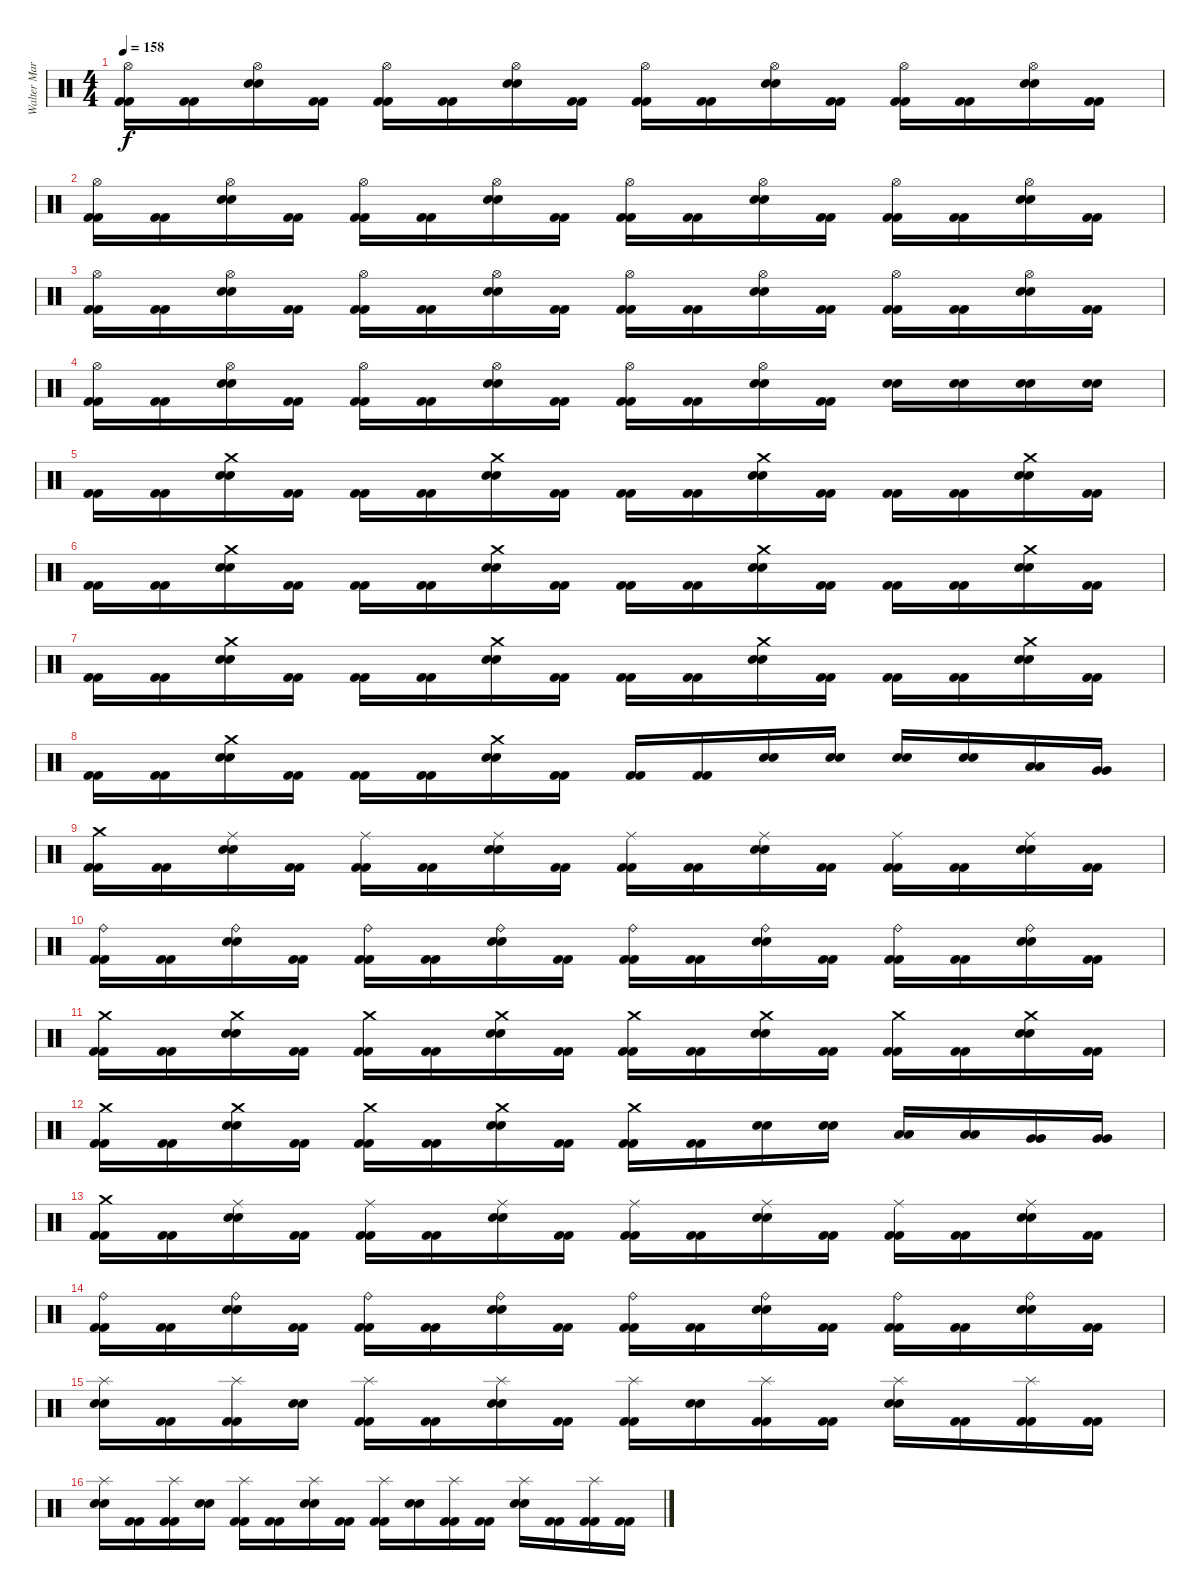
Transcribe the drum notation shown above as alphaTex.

\track ("Walter Martinez (Bateria)" "Walter Mar") {instrument percussion}
\staff {score}
\articulation defaults
\ts (4 4)
\tempo 158
\clef neutral
\ks c
("Hi-Hat (open)" "Kick (hit) 2" "Kick (hit) 2").16{dy f} ("Kick (hit) 2" "Kick (hit) 2").16 ("Hi-Hat (open)" "Snare (hit) 2" "Snare (hit) 2").16 ("Kick (hit) 2" "Kick (hit) 2").16 ("Hi-Hat (open)" "Kick (hit) 2" "Kick (hit) 2").16 ("Kick (hit) 2" "Kick (hit) 2").16 ("Hi-Hat (open)" "Snare (hit) 2" "Snare (hit) 2").16 ("Kick (hit) 2" "Kick (hit) 2").16 ("Hi-Hat (open)" "Kick (hit) 2" "Kick (hit) 2").16 ("Kick (hit) 2" "Kick (hit) 2").16 ("Hi-Hat (open)" "Snare (hit) 2" "Snare (hit) 2").16 ("Kick (hit) 2" "Kick (hit) 2").16 ("Hi-Hat (open)" "Kick (hit) 2" "Kick (hit) 2").16 ("Kick (hit) 2" "Kick (hit) 2").16 ("Hi-Hat (open)" "Snare (hit) 2" "Snare (hit) 2").16 ("Kick (hit) 2" "Kick (hit) 2").16 |
("Hi-Hat (open)" "Kick (hit) 2" "Kick (hit) 2").16 ("Kick (hit) 2" "Kick (hit) 2").16 ("Hi-Hat (open)" "Snare (hit) 2" "Snare (hit) 2").16 ("Kick (hit) 2" "Kick (hit) 2").16 ("Hi-Hat (open)" "Kick (hit) 2" "Kick (hit) 2").16 ("Kick (hit) 2" "Kick (hit) 2").16 ("Hi-Hat (open)" "Snare (hit) 2" "Snare (hit) 2").16 ("Kick (hit) 2" "Kick (hit) 2").16 ("Hi-Hat (open)" "Kick (hit) 2" "Kick (hit) 2").16 ("Kick (hit) 2" "Kick (hit) 2").16 ("Hi-Hat (open)" "Snare (hit) 2" "Snare (hit) 2").16 ("Kick (hit) 2" "Kick (hit) 2").16 ("Hi-Hat (open)" "Kick (hit) 2" "Kick (hit) 2").16 ("Kick (hit) 2" "Kick (hit) 2").16 ("Hi-Hat (open)" "Snare (hit) 2" "Snare (hit) 2").16 ("Kick (hit) 2" "Kick (hit) 2").16 |
("Hi-Hat (open)" "Kick (hit) 2" "Kick (hit) 2").16 ("Kick (hit) 2" "Kick (hit) 2").16 ("Hi-Hat (open)" "Snare (hit) 2" "Snare (hit) 2").16 ("Kick (hit) 2" "Kick (hit) 2").16 ("Hi-Hat (open)" "Kick (hit) 2" "Kick (hit) 2").16 ("Kick (hit) 2" "Kick (hit) 2").16 ("Hi-Hat (open)" "Snare (hit) 2" "Snare (hit) 2").16 ("Kick (hit) 2" "Kick (hit) 2").16 ("Hi-Hat (open)" "Kick (hit) 2" "Kick (hit) 2").16 ("Kick (hit) 2" "Kick (hit) 2").16 ("Hi-Hat (open)" "Snare (hit) 2" "Snare (hit) 2").16 ("Kick (hit) 2" "Kick (hit) 2").16 ("Hi-Hat (open)" "Kick (hit) 2" "Kick (hit) 2").16 ("Kick (hit) 2" "Kick (hit) 2").16 ("Hi-Hat (open)" "Snare (hit) 2" "Snare (hit) 2").16 ("Kick (hit) 2" "Kick (hit) 2").16 |
("Hi-Hat (open)" "Kick (hit) 2" "Kick (hit) 2").16 ("Kick (hit) 2" "Kick (hit) 2").16 ("Hi-Hat (open)" "Snare (hit) 2" "Snare (hit) 2").16 ("Kick (hit) 2" "Kick (hit) 2").16 ("Hi-Hat (open)" "Kick (hit) 2" "Kick (hit) 2").16 ("Kick (hit) 2" "Kick (hit) 2").16 ("Hi-Hat (open)" "Snare (hit) 2" "Snare (hit) 2").16 ("Kick (hit) 2" "Kick (hit) 2").16 ("Hi-Hat (open)" "Kick (hit) 2" "Kick (hit) 2").16 ("Kick (hit) 2" "Kick (hit) 2").16 ("Hi-Hat (open)" "Snare (hit) 2" "Snare (hit) 2").16 ("Kick (hit) 2" "Kick (hit) 2").16 ("Snare (hit) 2" "Snare (hit) 2").16 ("Snare (hit) 2" "Snare (hit) 2").16 ("Snare (hit) 2" "Snare (hit) 2").16 ("Snare (hit) 2" "Snare (hit) 2").16 |
("Kick (hit) 2" "Kick (hit) 2").16 ("Kick (hit) 2" "Kick (hit) 2").16 ("Crash medium (hit)" "Snare (hit) 2" "Snare (hit) 2").16 ("Kick (hit) 2" "Kick (hit) 2").16 ("Kick (hit) 2" "Kick (hit) 2").16 ("Kick (hit) 2" "Kick (hit) 2").16 ("Crash medium (hit)" "Snare (hit) 2" "Snare (hit) 2").16 ("Kick (hit) 2" "Kick (hit) 2").16 ("Kick (hit) 2" "Kick (hit) 2").16 ("Kick (hit) 2" "Kick (hit) 2").16 ("Crash medium (hit)" "Snare (hit) 2" "Snare (hit) 2").16 ("Kick (hit) 2" "Kick (hit) 2").16 ("Kick (hit) 2" "Kick (hit) 2").16 ("Kick (hit) 2" "Kick (hit) 2").16 ("Crash medium (hit)" "Snare (hit) 2" "Snare (hit) 2").16 ("Kick (hit) 2" "Kick (hit) 2").16 |
("Kick (hit) 2" "Kick (hit) 2").16 ("Kick (hit) 2" "Kick (hit) 2").16 ("Crash medium (hit)" "Snare (hit) 2" "Snare (hit) 2").16 ("Kick (hit) 2" "Kick (hit) 2").16 ("Kick (hit) 2" "Kick (hit) 2").16 ("Kick (hit) 2" "Kick (hit) 2").16 ("Crash medium (hit)" "Snare (hit) 2" "Snare (hit) 2").16 ("Kick (hit) 2" "Kick (hit) 2").16 ("Kick (hit) 2" "Kick (hit) 2").16 ("Kick (hit) 2" "Kick (hit) 2").16 ("Crash medium (hit)" "Snare (hit) 2" "Snare (hit) 2").16 ("Kick (hit) 2" "Kick (hit) 2").16 ("Kick (hit) 2" "Kick (hit) 2").16 ("Kick (hit) 2" "Kick (hit) 2").16 ("Crash medium (hit)" "Snare (hit) 2" "Snare (hit) 2").16 ("Kick (hit) 2" "Kick (hit) 2").16 |
("Kick (hit) 2" "Kick (hit) 2").16 ("Kick (hit) 2" "Kick (hit) 2").16 ("Crash medium (hit)" "Snare (hit) 2" "Snare (hit) 2").16 ("Kick (hit) 2" "Kick (hit) 2").16 ("Kick (hit) 2" "Kick (hit) 2").16 ("Kick (hit) 2" "Kick (hit) 2").16 ("Crash medium (hit)" "Snare (hit) 2" "Snare (hit) 2").16 ("Kick (hit) 2" "Kick (hit) 2").16 ("Kick (hit) 2" "Kick (hit) 2").16 ("Kick (hit) 2" "Kick (hit) 2").16 ("Crash medium (hit)" "Snare (hit) 2" "Snare (hit) 2").16 ("Kick (hit) 2" "Kick (hit) 2").16 ("Kick (hit) 2" "Kick (hit) 2").16 ("Kick (hit) 2" "Kick (hit) 2").16 ("Crash medium (hit)" "Snare (hit) 2" "Snare (hit) 2").16 ("Kick (hit) 2" "Kick (hit) 2").16 |
("Kick (hit) 2" "Kick (hit) 2").16 ("Kick (hit) 2" "Kick (hit) 2").16 ("Crash medium (hit)" "Snare (hit) 2" "Snare (hit) 2").16 ("Kick (hit) 2" "Kick (hit) 2").16 ("Kick (hit) 2" "Kick (hit) 2").16 ("Kick (hit) 2" "Kick (hit) 2").16 ("Crash medium (hit)" "Snare (hit) 2" "Snare (hit) 2").16 ("Kick (hit) 2" "Kick (hit) 2").16 ("Kick (hit) 2" "Kick (hit) 2").16 ("Kick (hit) 2" "Kick (hit) 2").16 ("Snare (hit) 2" "Snare (hit) 2").16 ("Snare (hit) 2" "Snare (hit) 2").16 ("Snare (hit) 2" "Snare (hit) 2").16 ("Snare (hit) 2" "Snare (hit) 2").16 ("Low Tom (hit)" "Low Tom (hit)").16 ("Very Low Tom (hit)" "Very Low Tom (hit)").16 |
("Crash medium (hit)" "Kick (hit) 2" "Kick (hit) 2").16 ("Kick (hit) 2" "Kick (hit) 2").16 ("Ride (middle)" "Snare (hit) 2" "Snare (hit) 2").16 ("Kick (hit) 2" "Kick (hit) 2").16 ("Ride (middle)" "Kick (hit) 2" "Kick (hit) 2").16 ("Kick (hit) 2" "Kick (hit) 2").16 ("Ride (middle)" "Snare (hit) 2" "Snare (hit) 2").16 ("Kick (hit) 2" "Kick (hit) 2").16 ("Ride (middle)" "Kick (hit) 2" "Kick (hit) 2").16 ("Kick (hit) 2" "Kick (hit) 2").16 ("Ride (middle)" "Snare (hit) 2" "Snare (hit) 2").16 ("Kick (hit) 2" "Kick (hit) 2").16 ("Ride (middle)" "Kick (hit) 2" "Kick (hit) 2").16 ("Kick (hit) 2" "Kick (hit) 2").16 ("Ride (middle)" "Snare (hit) 2" "Snare (hit) 2").16 ("Kick (hit) 2" "Kick (hit) 2").16 |
("Ride (bell)" "Kick (hit) 2" "Kick (hit) 2").16 ("Kick (hit) 2" "Kick (hit) 2").16 ("Ride (bell)" "Snare (hit) 2" "Snare (hit) 2").16 ("Kick (hit) 2" "Kick (hit) 2").16 ("Ride (bell)" "Kick (hit) 2" "Kick (hit) 2").16 ("Kick (hit) 2" "Kick (hit) 2").16 ("Ride (bell)" "Snare (hit) 2" "Snare (hit) 2").16 ("Kick (hit) 2" "Kick (hit) 2").16 ("Ride (bell)" "Kick (hit) 2" "Kick (hit) 2").16 ("Kick (hit) 2" "Kick (hit) 2").16 ("Ride (bell)" "Snare (hit) 2" "Snare (hit) 2").16 ("Kick (hit) 2" "Kick (hit) 2").16 ("Ride (bell)" "Kick (hit) 2" "Kick (hit) 2").16 ("Kick (hit) 2" "Kick (hit) 2").16 ("Ride (bell)" "Snare (hit) 2" "Snare (hit) 2").16 ("Kick (hit) 2" "Kick (hit) 2").16 |
("Crash medium (hit)" "Kick (hit) 2" "Kick (hit) 2").16 ("Kick (hit) 2" "Kick (hit) 2").16 ("Crash medium (hit)" "Snare (hit) 2" "Snare (hit) 2").16 ("Kick (hit) 2" "Kick (hit) 2").16 ("Crash medium (hit)" "Kick (hit) 2" "Kick (hit) 2").16 ("Kick (hit) 2" "Kick (hit) 2").16 ("Crash medium (hit)" "Snare (hit) 2" "Snare (hit) 2").16 ("Kick (hit) 2" "Kick (hit) 2").16 ("Crash medium (hit)" "Kick (hit) 2" "Kick (hit) 2").16 ("Kick (hit) 2" "Kick (hit) 2").16 ("Crash medium (hit)" "Snare (hit) 2" "Snare (hit) 2").16 ("Kick (hit) 2" "Kick (hit) 2").16 ("Crash medium (hit)" "Kick (hit) 2" "Kick (hit) 2").16 ("Kick (hit) 2" "Kick (hit) 2").16 ("Crash medium (hit)" "Snare (hit) 2" "Snare (hit) 2").16 ("Kick (hit) 2" "Kick (hit) 2").16 |
("Crash medium (hit)" "Kick (hit) 2" "Kick (hit) 2").16 ("Kick (hit) 2" "Kick (hit) 2").16 ("Crash medium (hit)" "Snare (hit) 2" "Snare (hit) 2").16 ("Kick (hit) 2" "Kick (hit) 2").16 ("Crash medium (hit)" "Kick (hit) 2" "Kick (hit) 2").16 ("Kick (hit) 2" "Kick (hit) 2").16 ("Crash medium (hit)" "Snare (hit) 2" "Snare (hit) 2").16 ("Kick (hit) 2" "Kick (hit) 2").16 ("Crash medium (hit)" "Kick (hit) 2" "Kick (hit) 2").16 ("Kick (hit) 2" "Kick (hit) 2").16 ("Snare (hit) 2" "Snare (hit) 2").16 ("Snare (hit) 2" "Snare (hit) 2").16 ("Low Tom (hit)" "Low Tom (hit)").16 ("Low Tom (hit)" "Low Tom (hit)").16 ("Very Low Tom (hit)" "Very Low Tom (hit)").16 ("Very Low Tom (hit)" "Very Low Tom (hit)").16 |
("Crash medium (hit)" "Kick (hit) 2" "Kick (hit) 2").16 ("Kick (hit) 2" "Kick (hit) 2").16 ("Ride (middle)" "Snare (hit) 2" "Snare (hit) 2").16 ("Kick (hit) 2" "Kick (hit) 2").16 ("Ride (middle)" "Kick (hit) 2" "Kick (hit) 2").16 ("Kick (hit) 2" "Kick (hit) 2").16 ("Ride (middle)" "Snare (hit) 2" "Snare (hit) 2").16 ("Kick (hit) 2" "Kick (hit) 2").16 ("Ride (middle)" "Kick (hit) 2" "Kick (hit) 2").16 ("Kick (hit) 2" "Kick (hit) 2").16 ("Ride (middle)" "Snare (hit) 2" "Snare (hit) 2").16 ("Kick (hit) 2" "Kick (hit) 2").16 ("Ride (middle)" "Kick (hit) 2" "Kick (hit) 2").16 ("Kick (hit) 2" "Kick (hit) 2").16 ("Ride (middle)" "Snare (hit) 2" "Snare (hit) 2").16 ("Kick (hit) 2" "Kick (hit) 2").16 |
("Ride (bell)" "Kick (hit) 2" "Kick (hit) 2").16 ("Kick (hit) 2" "Kick (hit) 2").16 ("Ride (bell)" "Snare (hit) 2" "Snare (hit) 2").16 ("Kick (hit) 2" "Kick (hit) 2").16 ("Ride (bell)" "Kick (hit) 2" "Kick (hit) 2").16 ("Kick (hit) 2" "Kick (hit) 2").16 ("Ride (bell)" "Snare (hit) 2" "Snare (hit) 2").16 ("Kick (hit) 2" "Kick (hit) 2").16 ("Ride (bell)" "Kick (hit) 2" "Kick (hit) 2").16 ("Kick (hit) 2" "Kick (hit) 2").16 ("Ride (bell)" "Snare (hit) 2" "Snare (hit) 2").16 ("Kick (hit) 2" "Kick (hit) 2").16 ("Ride (bell)" "Kick (hit) 2" "Kick (hit) 2").16 ("Kick (hit) 2" "Kick (hit) 2").16 ("Ride (bell)" "Snare (hit) 2" "Snare (hit) 2").16 ("Kick (hit) 2" "Kick (hit) 2").16 |
("Splash (hit)" "Snare (hit) 2" "Snare (hit) 2").16 ("Kick (hit) 2" "Kick (hit) 2").16 ("Splash (hit)" "Kick (hit) 2" "Kick (hit) 2").16 ("Snare (hit) 2" "Snare (hit) 2").16 ("Splash (hit)" "Kick (hit) 2" "Kick (hit) 2").16 ("Kick (hit) 2" "Kick (hit) 2").16 ("Splash (hit)" "Snare (hit) 2" "Snare (hit) 2").16 ("Kick (hit) 2" "Kick (hit) 2").16 ("Splash (hit)" "Kick (hit) 2" "Kick (hit) 2").16 ("Snare (hit) 2" "Snare (hit) 2").16 ("Splash (hit)" "Kick (hit) 2" "Kick (hit) 2").16 ("Kick (hit) 2" "Kick (hit) 2").16 ("Splash (hit)" "Snare (hit) 2" "Snare (hit) 2").16 ("Kick (hit) 2" "Kick (hit) 2").16 ("Splash (hit)" "Kick (hit) 2" "Kick (hit) 2").16 ("Kick (hit) 2" "Kick (hit) 2").16 |
("Splash (hit)" "Snare (hit) 2" "Snare (hit) 2").16 ("Kick (hit) 2" "Kick (hit) 2").16 ("Splash (hit)" "Kick (hit) 2" "Kick (hit) 2").16 ("Snare (hit) 2" "Snare (hit) 2").16 ("Splash (hit)" "Kick (hit) 2" "Kick (hit) 2").16 ("Kick (hit) 2" "Kick (hit) 2").16 ("Splash (hit)" "Snare (hit) 2" "Snare (hit) 2").16 ("Kick (hit) 2" "Kick (hit) 2").16 ("Splash (hit)" "Kick (hit) 2" "Kick (hit) 2").16 ("Snare (hit) 2" "Snare (hit) 2").16 ("Splash (hit)" "Kick (hit) 2" "Kick (hit) 2").16 ("Kick (hit) 2" "Kick (hit) 2").16 ("Splash (hit)" "Snare (hit) 2" "Snare (hit) 2").16 ("Kick (hit) 2" "Kick (hit) 2").16 ("Splash (hit)" "Kick (hit) 2" "Kick (hit) 2").16 ("Kick (hit) 2" "Kick (hit) 2").16
